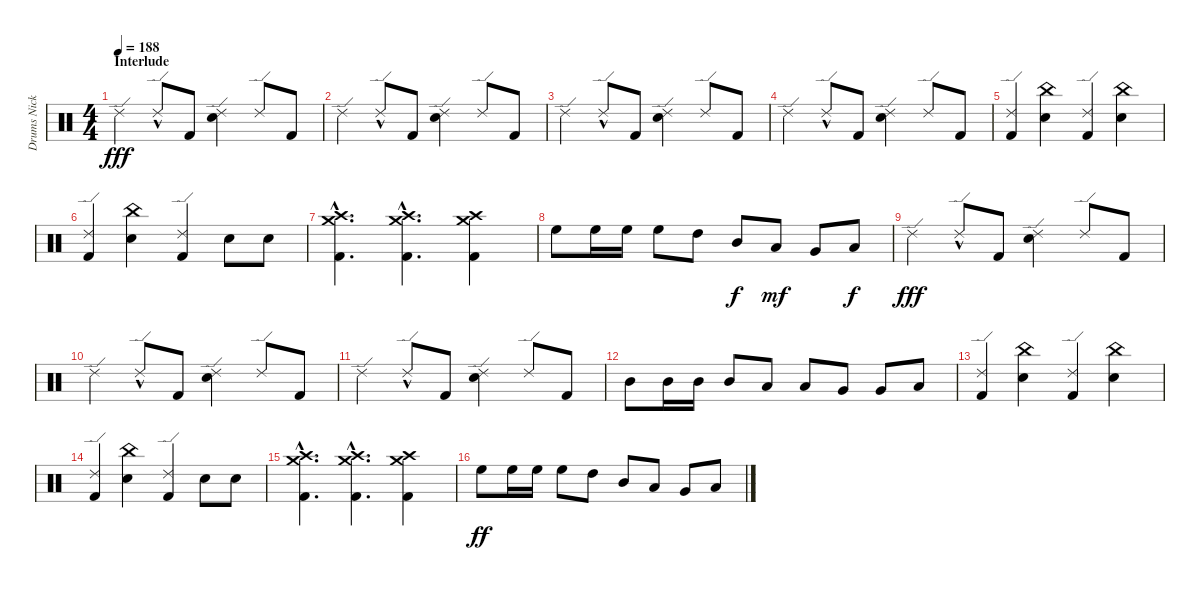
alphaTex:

\track ("Drums Nicko McBrain" "Drums Nick") {instrument percussion}
\staff {score}
\articulation defaults
\ts (4 4)
\section ("" "Interlude")
\tempo 188
\clef neutral
\ks c "Ride (edge) 2".4{dy fff} "Ride (edge) 2"{hac}.8 "Kick (hit) 2".8
("Ride (edge) 2" "Electric Snare (hit)").4 "Ride (edge) 2".8 "Kick (hit) 2".8 |
"Ride (edge) 2".4 "Ride (edge) 2"{hac}.8 "Kick (hit) 2".8 ("Ride (edge) 2" "Electric Snare (hit)").4 "Ride (edge) 2".8 "Kick (hit) 2".8 |
"Ride (edge) 2".4 "Ride (edge) 2"{hac}.8 "Kick (hit) 2".8 ("Ride (edge) 2" "Electric Snare (hit)").4 "Ride (edge) 2".8 "Kick (hit) 2".8 |
"Ride (edge) 2".4 "Ride (edge) 2"{hac}.8 "Kick (hit) 2".8 ("Ride (edge) 2" "Electric Snare (hit)").4 "Ride (edge) 2".8 "Kick (hit) 2".8 |
("Ride (edge) 2" "Kick (hit) 2").4 ("China (hit)" "Electric Snare (hit)").4 ("Ride (edge) 2" "Kick (hit) 2").4 ("China (hit)" "Electric Snare (hit)").4 |
("Ride (edge) 2" "Kick (hit) 2").4 ("China (hit)" "Electric Snare (hit)").4 ("Ride (edge) 2" "Kick (hit) 2").4 "Electric Snare (hit)".8 "Electric Snare (hit)".8 |
("Crash medium (hit)"{hac} "Crash high (hit)"{hac} "Kick (hit) 2"{hac}).4{d} ("Crash medium (hit)"{hac} "Crash high (hit)"{hac} "Kick (hit) 2"{hac}).4{d} ("Crash medium (hit)" "Crash high (hit)" "Kick (hit) 2").4 |
"High Floor Tom (hit)".8 "High Floor Tom (hit)".16 "High Floor Tom (hit)".16 "High Floor Tom (hit)".8 "High Tom (hit)".8 "Mid Tom (hit)".8{dy f} "Low Tom (hit)".8{dy mf} "Very Low Tom (hit)".8 "Low Floor Tom (hit)".8{dy f} |
"Ride (edge) 2".4{dy fff} "Ride (edge) 2"{hac}.8 "Kick (hit) 2".8 ("Ride (edge) 2" "Electric Snare (hit)").4 "Ride (edge) 2".8 "Kick (hit) 2".8 |
"Ride (edge) 2".4 "Ride (edge) 2"{hac}.8 "Kick (hit) 2".8 ("Ride (edge) 2" "Electric Snare (hit)").4 "Ride (edge) 2".8 "Kick (hit) 2".8 |
"Ride (edge) 2".4 "Ride (edge) 2"{hac}.8 "Kick (hit) 2".8 ("Ride (edge) 2" "Electric Snare (hit)").4 "Ride (edge) 2".8 "Kick (hit) 2".8 |
"Mid Tom (hit)".8 "Mid Tom (hit)".16 "Mid Tom (hit)".16 "Mid Tom (hit)".8 "Low Tom (hit)".8 "Low Tom (hit)".8 "Very Low Tom (hit)".8 "Very Low Tom (hit)".8 "Low Floor Tom (hit)".8 |
("Ride (edge) 2" "Kick (hit) 2").4 ("China (hit)" "Electric Snare (hit)").4 ("Ride (edge) 2" "Kick (hit) 2").4 ("China (hit)" "Electric Snare (hit)").4 |
("Ride (edge) 2" "Kick (hit) 2").4 ("China (hit)" "Electric Snare (hit)").4 ("Ride (edge) 2" "Kick (hit) 2").4 "Electric Snare (hit)".8 "Electric Snare (hit)".8 |
("Crash medium (hit)"{hac} "Crash high (hit)"{hac} "Kick (hit) 2"{hac}).4{d} ("Crash medium (hit)"{hac} "Crash high (hit)"{hac} "Kick (hit) 2"{hac}).4{d} ("Crash medium (hit)" "Crash high (hit)" "Kick (hit) 2").4 |
"High Floor Tom (hit)".8{dy ff} "High Floor Tom (hit)".16 "High Floor Tom (hit)".16 "High Floor Tom (hit)".8 "High Tom (hit)".8 "Mid Tom (hit)".8 "Low Tom (hit)".8 "Very Low Tom (hit)".8 "Low Floor Tom (hit)".8
